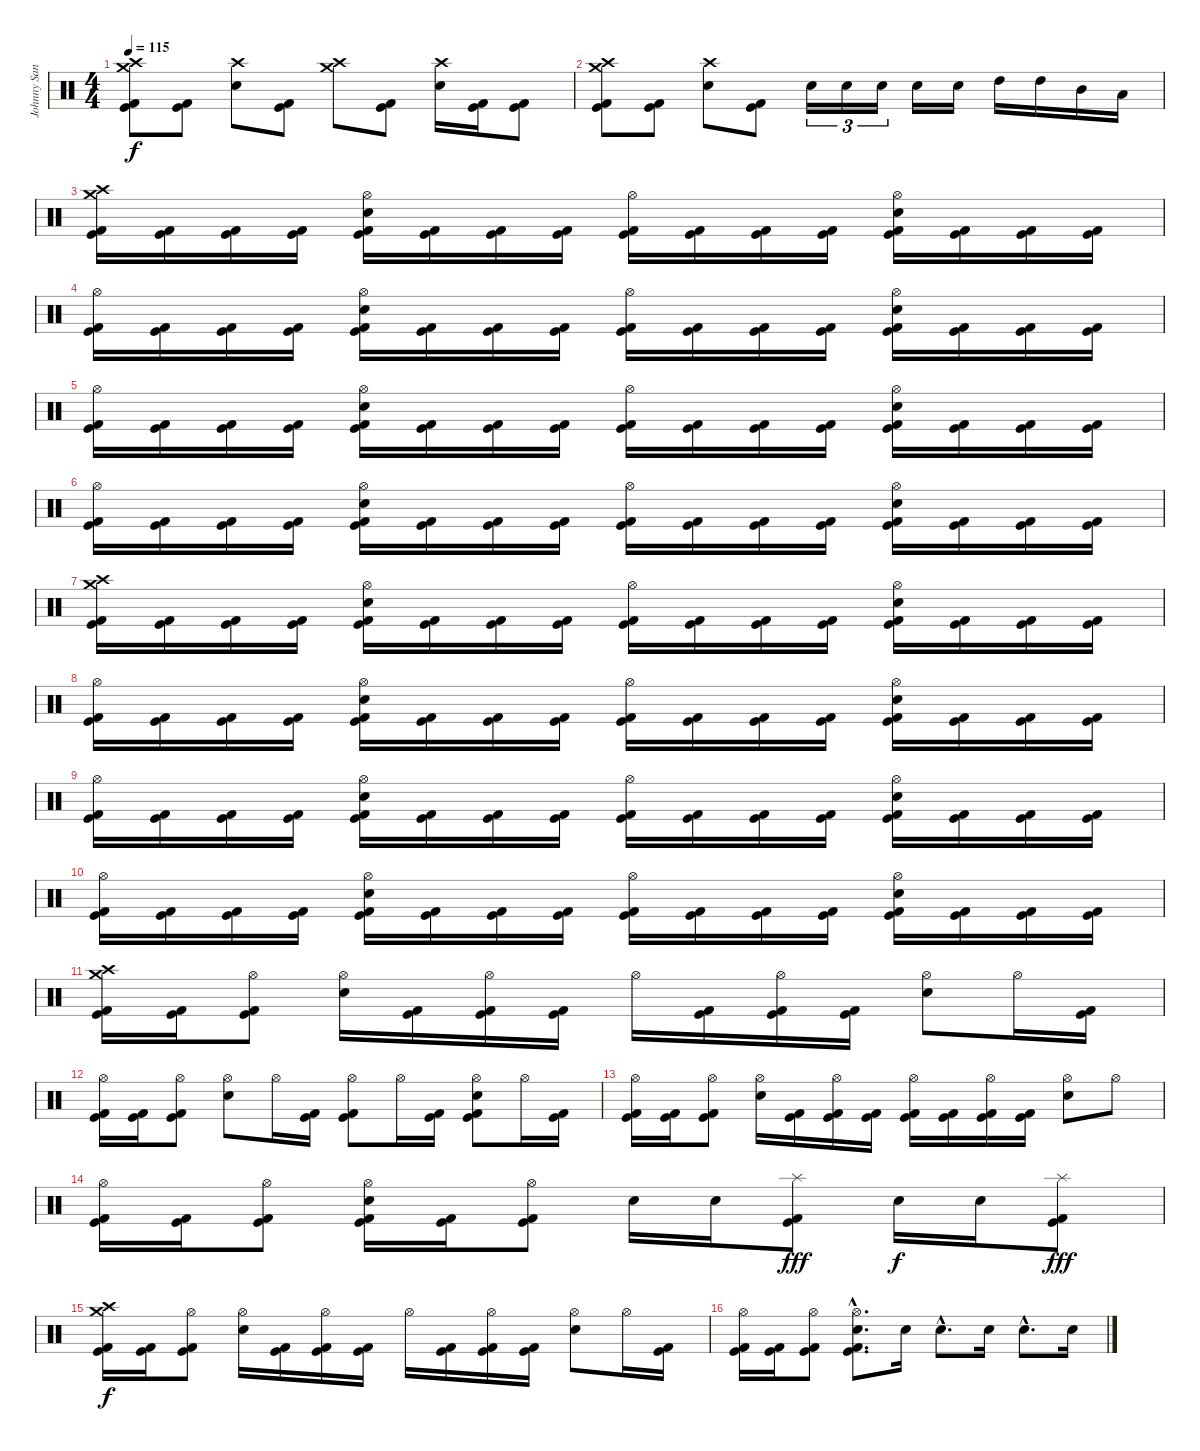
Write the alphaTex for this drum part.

\track ("Johnny Sandin" "Johnny San") {instrument percussion}
\staff {score}
\articulation defaults
\ts (4 4)
\tempo 115
\clef neutral
\ks c
("Crash medium (hit)" "Crash high (hit)" "Kick (hit) 2" "Kick (hit)").8{dy f} ("Kick (hit) 2" "Kick (hit)").8 ("Crash high (hit)" "Snare (hit) 2").8 ("Kick (hit) 2" "Kick (hit)").8 ("Crash medium (hit)" "Crash high (hit)").8 ("Kick (hit) 2" "Kick (hit)").8 ("Crash high (hit)" "Snare (hit) 2").16 ("Kick (hit)" "Kick (hit) 2").16 ("Kick (hit)" "Kick (hit) 2").8 |
("Crash medium (hit)" "Crash high (hit)" "Kick (hit) 2" "Kick (hit)").8 ("Kick (hit) 2" "Kick (hit)").8 ("Crash high (hit)" "Snare (hit) 2").8 ("Kick (hit) 2" "Kick (hit)").8 "Snare (hit) 2".16{tu (3 2)} "Snare (hit) 2".16{tu (3 2)} "Snare (hit) 2".16{tu (3 2)} "Snare (hit) 2".16 "Snare (hit) 2".16 "High Tom (hit)".16 "High Tom (hit)".16 "Mid Tom (hit)".16 "Low Tom (hit)".16 |
("Crash medium (hit)" "Crash high (hit)" "Kick (hit) 2" "Kick (hit)").16 ("Kick (hit) 2" "Kick (hit)").16 ("Kick (hit) 2" "Kick (hit)").16 ("Kick (hit) 2" "Kick (hit)").16 ("Hi-Hat (open)" "Snare (hit) 2" "Kick (hit) 2" "Kick (hit)").16 ("Kick (hit) 2" "Kick (hit)").16 ("Kick (hit) 2" "Kick (hit)").16 ("Kick (hit) 2" "Kick (hit)").16 ("Hi-Hat (open)" "Kick (hit) 2" "Kick (hit)").16 ("Kick (hit) 2" "Kick (hit)").16 ("Kick (hit) 2" "Kick (hit)").16 ("Kick (hit) 2" "Kick (hit)").16 ("Hi-Hat (open)" "Snare (hit) 2" "Kick (hit) 2" "Kick (hit)").16 ("Kick (hit) 2" "Kick (hit)").16 ("Kick (hit) 2" "Kick (hit)").16 ("Kick (hit) 2" "Kick (hit)").16 |
("Hi-Hat (open)" "Kick (hit) 2" "Kick (hit)").16 ("Kick (hit) 2" "Kick (hit)").16 ("Kick (hit) 2" "Kick (hit)").16 ("Kick (hit) 2" "Kick (hit)").16 ("Hi-Hat (open)" "Snare (hit) 2" "Kick (hit) 2" "Kick (hit)").16 ("Kick (hit) 2" "Kick (hit)").16 ("Kick (hit) 2" "Kick (hit)").16 ("Kick (hit) 2" "Kick (hit)").16 ("Hi-Hat (open)" "Kick (hit) 2" "Kick (hit)").16 ("Kick (hit) 2" "Kick (hit)").16 ("Kick (hit) 2" "Kick (hit)").16 ("Kick (hit) 2" "Kick (hit)").16 ("Hi-Hat (open)" "Snare (hit) 2" "Kick (hit) 2" "Kick (hit)").16 ("Kick (hit) 2" "Kick (hit)").16 ("Kick (hit) 2" "Kick (hit)").16 ("Kick (hit) 2" "Kick (hit)").16 |
("Hi-Hat (open)" "Kick (hit) 2" "Kick (hit)").16 ("Kick (hit) 2" "Kick (hit)").16 ("Kick (hit) 2" "Kick (hit)").16 ("Kick (hit) 2" "Kick (hit)").16 ("Hi-Hat (open)" "Snare (hit) 2" "Kick (hit) 2" "Kick (hit)").16 ("Kick (hit) 2" "Kick (hit)").16 ("Kick (hit) 2" "Kick (hit)").16 ("Kick (hit) 2" "Kick (hit)").16 ("Hi-Hat (open)" "Kick (hit) 2" "Kick (hit)").16 ("Kick (hit) 2" "Kick (hit)").16 ("Kick (hit) 2" "Kick (hit)").16 ("Kick (hit) 2" "Kick (hit)").16 ("Hi-Hat (open)" "Snare (hit) 2" "Kick (hit) 2" "Kick (hit)").16 ("Kick (hit) 2" "Kick (hit)").16 ("Kick (hit) 2" "Kick (hit)").16 ("Kick (hit) 2" "Kick (hit)").16 |
("Hi-Hat (open)" "Kick (hit) 2" "Kick (hit)").16 ("Kick (hit) 2" "Kick (hit)").16 ("Kick (hit) 2" "Kick (hit)").16 ("Kick (hit) 2" "Kick (hit)").16 ("Hi-Hat (open)" "Snare (hit) 2" "Kick (hit) 2" "Kick (hit)").16 ("Kick (hit) 2" "Kick (hit)").16 ("Kick (hit) 2" "Kick (hit)").16 ("Kick (hit) 2" "Kick (hit)").16 ("Hi-Hat (open)" "Kick (hit) 2" "Kick (hit)").16 ("Kick (hit) 2" "Kick (hit)").16 ("Kick (hit) 2" "Kick (hit)").16 ("Kick (hit) 2" "Kick (hit)").16 ("Hi-Hat (open)" "Snare (hit) 2" "Kick (hit) 2" "Kick (hit)").16 ("Kick (hit) 2" "Kick (hit)").16 ("Kick (hit) 2" "Kick (hit)").16 ("Kick (hit) 2" "Kick (hit)").16 |
("Crash medium (hit)" "Crash high (hit)" "Kick (hit) 2" "Kick (hit)").16 ("Kick (hit) 2" "Kick (hit)").16 ("Kick (hit) 2" "Kick (hit)").16 ("Kick (hit) 2" "Kick (hit)").16 ("Hi-Hat (open)" "Snare (hit) 2" "Kick (hit) 2" "Kick (hit)").16 ("Kick (hit) 2" "Kick (hit)").16 ("Kick (hit) 2" "Kick (hit)").16 ("Kick (hit) 2" "Kick (hit)").16 ("Hi-Hat (open)" "Kick (hit) 2" "Kick (hit)").16 ("Kick (hit) 2" "Kick (hit)").16 ("Kick (hit) 2" "Kick (hit)").16 ("Kick (hit) 2" "Kick (hit)").16 ("Hi-Hat (open)" "Snare (hit) 2" "Kick (hit) 2" "Kick (hit)").16 ("Kick (hit) 2" "Kick (hit)").16 ("Kick (hit) 2" "Kick (hit)").16 ("Kick (hit) 2" "Kick (hit)").16 |
("Hi-Hat (open)" "Kick (hit) 2" "Kick (hit)").16 ("Kick (hit) 2" "Kick (hit)").16 ("Kick (hit) 2" "Kick (hit)").16 ("Kick (hit) 2" "Kick (hit)").16 ("Hi-Hat (open)" "Snare (hit) 2" "Kick (hit) 2" "Kick (hit)").16 ("Kick (hit) 2" "Kick (hit)").16 ("Kick (hit) 2" "Kick (hit)").16 ("Kick (hit) 2" "Kick (hit)").16 ("Hi-Hat (open)" "Kick (hit) 2" "Kick (hit)").16 ("Kick (hit) 2" "Kick (hit)").16 ("Kick (hit) 2" "Kick (hit)").16 ("Kick (hit) 2" "Kick (hit)").16 ("Hi-Hat (open)" "Snare (hit) 2" "Kick (hit) 2" "Kick (hit)").16 ("Kick (hit) 2" "Kick (hit)").16 ("Kick (hit) 2" "Kick (hit)").16 ("Kick (hit) 2" "Kick (hit)").16 |
("Hi-Hat (open)" "Kick (hit) 2" "Kick (hit)").16 ("Kick (hit) 2" "Kick (hit)").16 ("Kick (hit) 2" "Kick (hit)").16 ("Kick (hit) 2" "Kick (hit)").16 ("Hi-Hat (open)" "Snare (hit) 2" "Kick (hit) 2" "Kick (hit)").16 ("Kick (hit) 2" "Kick (hit)").16 ("Kick (hit) 2" "Kick (hit)").16 ("Kick (hit) 2" "Kick (hit)").16 ("Hi-Hat (open)" "Kick (hit) 2" "Kick (hit)").16 ("Kick (hit) 2" "Kick (hit)").16 ("Kick (hit) 2" "Kick (hit)").16 ("Kick (hit) 2" "Kick (hit)").16 ("Hi-Hat (open)" "Snare (hit) 2" "Kick (hit) 2" "Kick (hit)").16 ("Kick (hit) 2" "Kick (hit)").16 ("Kick (hit) 2" "Kick (hit)").16 ("Kick (hit) 2" "Kick (hit)").16 |
("Hi-Hat (open)" "Kick (hit) 2" "Kick (hit)").16 ("Kick (hit) 2" "Kick (hit)").16 ("Kick (hit) 2" "Kick (hit)").16 ("Kick (hit) 2" "Kick (hit)").16 ("Hi-Hat (open)" "Snare (hit) 2" "Kick (hit) 2" "Kick (hit)").16 ("Kick (hit) 2" "Kick (hit)").16 ("Kick (hit) 2" "Kick (hit)").16 ("Kick (hit) 2" "Kick (hit)").16 ("Hi-Hat (open)" "Kick (hit) 2" "Kick (hit)").16 ("Kick (hit) 2" "Kick (hit)").16 ("Kick (hit) 2" "Kick (hit)").16 ("Kick (hit) 2" "Kick (hit)").16 ("Hi-Hat (open)" "Snare (hit) 2" "Kick (hit) 2" "Kick (hit)").16 ("Kick (hit) 2" "Kick (hit)").16 ("Kick (hit) 2" "Kick (hit)").16 ("Kick (hit) 2" "Kick (hit)").16 |
("Crash medium (hit)" "Crash high (hit)" "Kick (hit) 2" "Kick (hit)").16 ("Kick (hit) 2" "Kick (hit)").16 ("Hi-Hat (open)" "Kick (hit) 2" "Kick (hit)").8 ("Hi-Hat (open)" "Snare (hit) 2").16 ("Kick (hit) 2" "Kick (hit)").16 ("Hi-Hat (open)" "Kick (hit) 2" "Kick (hit)").16 ("Kick (hit) 2" "Kick (hit)").16 "Hi-Hat (open)".16 ("Kick (hit) 2" "Kick (hit)").16 ("Hi-Hat (open)" "Kick (hit) 2" "Kick (hit)").16 ("Kick (hit) 2" "Kick (hit)").16 ("Hi-Hat (open)" "Snare (hit) 2").8 "Hi-Hat (open)".16 ("Kick (hit) 2" "Kick (hit)").16 |
("Hi-Hat (open)" "Kick (hit) 2" "Kick (hit)").16 ("Kick (hit) 2" "Kick (hit)").16 ("Hi-Hat (open)" "Kick (hit) 2" "Kick (hit)").8 ("Hi-Hat (open)" "Snare (hit) 2").8 "Hi-Hat (open)".16 ("Kick (hit) 2" "Kick (hit)").16 ("Hi-Hat (open)" "Kick (hit) 2" "Kick (hit)").8 "Hi-Hat (open)".16 ("Kick (hit) 2" "Kick (hit)").16 ("Hi-Hat (open)" "Snare (hit) 2" "Kick (hit) 2" "Kick (hit)").8 "Hi-Hat (open)".16 ("Kick (hit) 2" "Kick (hit)").16 |
("Hi-Hat (open)" "Kick (hit) 2" "Kick (hit)").16 ("Kick (hit) 2" "Kick (hit)").16 ("Hi-Hat (open)" "Kick (hit) 2" "Kick (hit)").8 ("Hi-Hat (open)" "Snare (hit) 2").16 ("Kick (hit) 2" "Kick (hit)").16 ("Hi-Hat (open)" "Kick (hit) 2" "Kick (hit)").16 ("Kick (hit) 2" "Kick (hit)").16 ("Hi-Hat (open)" "Kick (hit) 2" "Kick (hit)").16 ("Kick (hit) 2" "Kick (hit)").16 ("Hi-Hat (open)" "Kick (hit) 2" "Kick (hit)").16 ("Kick (hit) 2" "Kick (hit)").16 ("Hi-Hat (open)" "Snare (hit) 2").8 "Hi-Hat (open)".8 |
("Hi-Hat (open)" "Kick (hit) 2" "Kick (hit)").16 ("Kick (hit) 2" "Kick (hit)").16 ("Hi-Hat (open)" "Kick (hit) 2" "Kick (hit)").8 ("Hi-Hat (open)" "Snare (hit) 2" "Kick (hit) 2" "Kick (hit)").16 ("Kick (hit) 2" "Kick (hit)").16 ("Hi-Hat (open)" "Kick (hit) 2" "Kick (hit)").8 "Snare (hit) 2".16 "Snare (hit) 2".16 ("Splash (hit)" "Kick (hit) 2" "Kick (hit)").8{dy fff} "Snare (hit) 2".16{dy f} "Snare (hit) 2".16 ("Splash (hit)" "Kick (hit) 2" "Kick (hit)").8{dy fff} |
("Crash medium (hit)" "Crash high (hit)" "Kick (hit) 2" "Kick (hit)").16{dy f} ("Kick (hit) 2" "Kick (hit)").16 ("Hi-Hat (open)" "Kick (hit) 2" "Kick (hit)").8 ("Hi-Hat (open)" "Snare (hit) 2").16 ("Kick (hit) 2" "Kick (hit)").16 ("Hi-Hat (open)" "Kick (hit) 2" "Kick (hit)").16 ("Kick (hit) 2" "Kick (hit)").16 "Hi-Hat (open)".16 ("Kick (hit) 2" "Kick (hit)").16 ("Hi-Hat (open)" "Kick (hit) 2" "Kick (hit)").16 ("Kick (hit) 2" "Kick (hit)").16 ("Hi-Hat (open)" "Snare (hit) 2").8 "Hi-Hat (open)".16 ("Kick (hit) 2" "Kick (hit)").16 |
("Hi-Hat (open)" "Kick (hit) 2" "Kick (hit)").16 ("Kick (hit) 2" "Kick (hit)").16 ("Hi-Hat (open)" "Kick (hit) 2" "Kick (hit)").8 ("Hi-Hat (open)"{hac} "Snare (hit) 2"{hac} "Kick (hit) 2"{hac} "Kick (hit)"{hac}).8{d} "Snare (hit) 2".16 "Snare (hit) 2"{hac}.8{d} "Snare (hit) 2".16 "Snare (hit) 2"{hac}.8{d} "Snare (hit) 2".16
